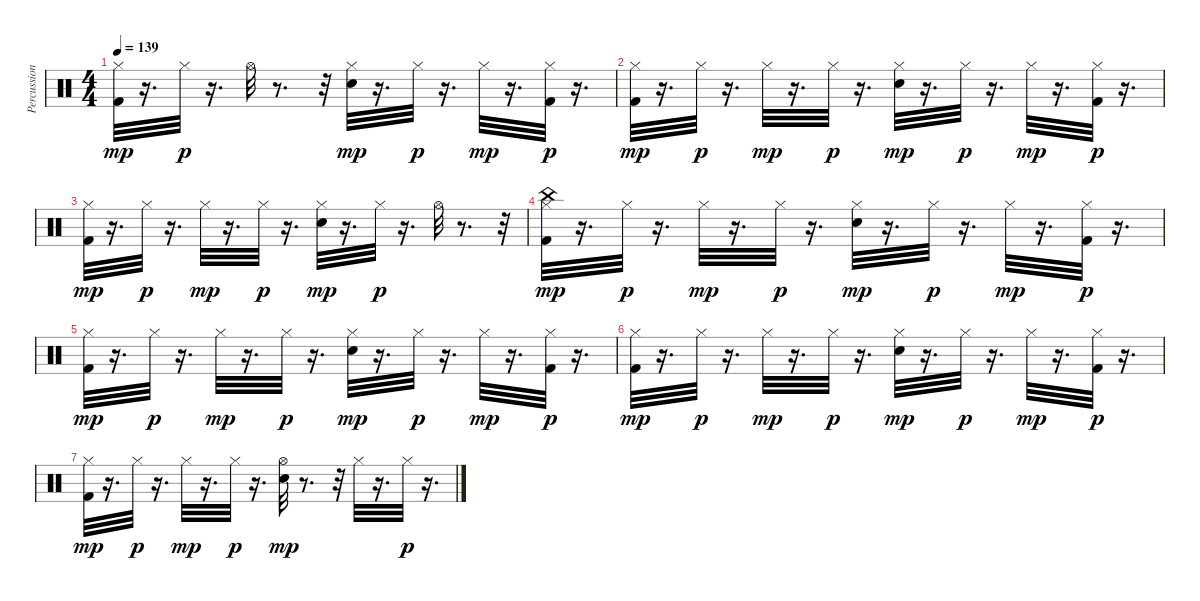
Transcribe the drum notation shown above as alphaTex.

\track ("Percussion" "Percussion") {instrument percussion}
\staff {score}
\articulation defaults
\ts (4 4)
\tempo 139
\clef neutral
\ks c
("Hi-Hat (closed)" "Kick (hit) 2").32{dy mp} r.16{d} "Hi-Hat (closed)".32{dy p} r.16{d} "Hi-Hat (open)".32 r.8{d} r.32 ("Hi-Hat (closed)" "Snare (hit) 2").32{dy mp} r.16{d} "Hi-Hat (closed)".32{dy p} r.16{d} "Hi-Hat (closed)".32{dy mp} r.16{d} ("Hi-Hat (closed)" "Kick (hit) 2").32{dy p} r.16{d} |
("Hi-Hat (closed)" "Kick (hit) 2").32{dy mp} r.16{d} "Hi-Hat (closed)".32{dy p} r.16{d} "Hi-Hat (closed)".32{dy mp} r.16{d} "Hi-Hat (closed)".32{dy p} r.16{d} ("Hi-Hat (closed)" "Snare (hit) 2").32{dy mp} r.16{d} "Hi-Hat (closed)".32{dy p} r.16{d} "Hi-Hat (closed)".32{dy mp} r.16{d} ("Hi-Hat (closed)" "Kick (hit) 2").32{dy p} r.16{d} |
("Hi-Hat (closed)" "Kick (hit) 2").32{dy mp} r.16{d} "Hi-Hat (closed)".32{dy p} r.16{d} "Hi-Hat (closed)".32{dy mp} r.16{d} "Hi-Hat (closed)".32{dy p} r.16{d} ("Hi-Hat (closed)" "Snare (hit) 2").32{dy mp} r.16{d} "Hi-Hat (closed)".32{dy p} r.16{d} "Hi-Hat (open)".32 r.8{d} r.32 |
("China (hit)" "Hi-Hat (closed)" "Kick (hit) 2").32{dy mp} r.16{d} "Hi-Hat (closed)".32{dy p} r.16{d} "Hi-Hat (closed)".32{dy mp} r.16{d} "Hi-Hat (closed)".32{dy p} r.16{d} ("Hi-Hat (closed)" "Snare (hit) 2").32{dy mp} r.16{d} "Hi-Hat (closed)".32{dy p} r.16{d} "Hi-Hat (closed)".32{dy mp} r.16{d} ("Hi-Hat (closed)" "Kick (hit) 2").32{dy p} r.16{d} |
("Hi-Hat (closed)" "Kick (hit) 2").32{dy mp} r.16{d} "Hi-Hat (closed)".32{dy p} r.16{d} "Hi-Hat (closed)".32{dy mp} r.16{d} "Hi-Hat (closed)".32{dy p} r.16{d} ("Hi-Hat (closed)" "Snare (hit) 2").32{dy mp} r.16{d} "Hi-Hat (closed)".32{dy p} r.16{d} "Hi-Hat (closed)".32{dy mp} r.16{d} ("Hi-Hat (closed)" "Kick (hit) 2").32{dy p} r.16{d} |
("Hi-Hat (closed)" "Kick (hit) 2").32{dy mp} r.16{d} "Hi-Hat (closed)".32{dy p} r.16{d} "Hi-Hat (closed)".32{dy mp} r.16{d} "Hi-Hat (closed)".32{dy p} r.16{d} ("Hi-Hat (closed)" "Snare (hit) 2").32{dy mp} r.16{d} "Hi-Hat (closed)".32{dy p} r.16{d} "Hi-Hat (closed)".32{dy mp} r.16{d} ("Hi-Hat (closed)" "Kick (hit) 2").32{dy p} r.16{d} |
("Hi-Hat (closed)" "Kick (hit) 2").32{dy mp} r.16{d} "Hi-Hat (closed)".32{dy p} r.16{d} "Hi-Hat (closed)".32{dy mp} r.16{d} "Hi-Hat (closed)".32{dy p} r.16{d} ("Hi-Hat (open)" "Snare (hit) 2").32{dy mp} r.8{d} r.32 "Hi-Hat (closed)".32 r.16{d} "Hi-Hat (closed)".32{dy p} r.16{d}
